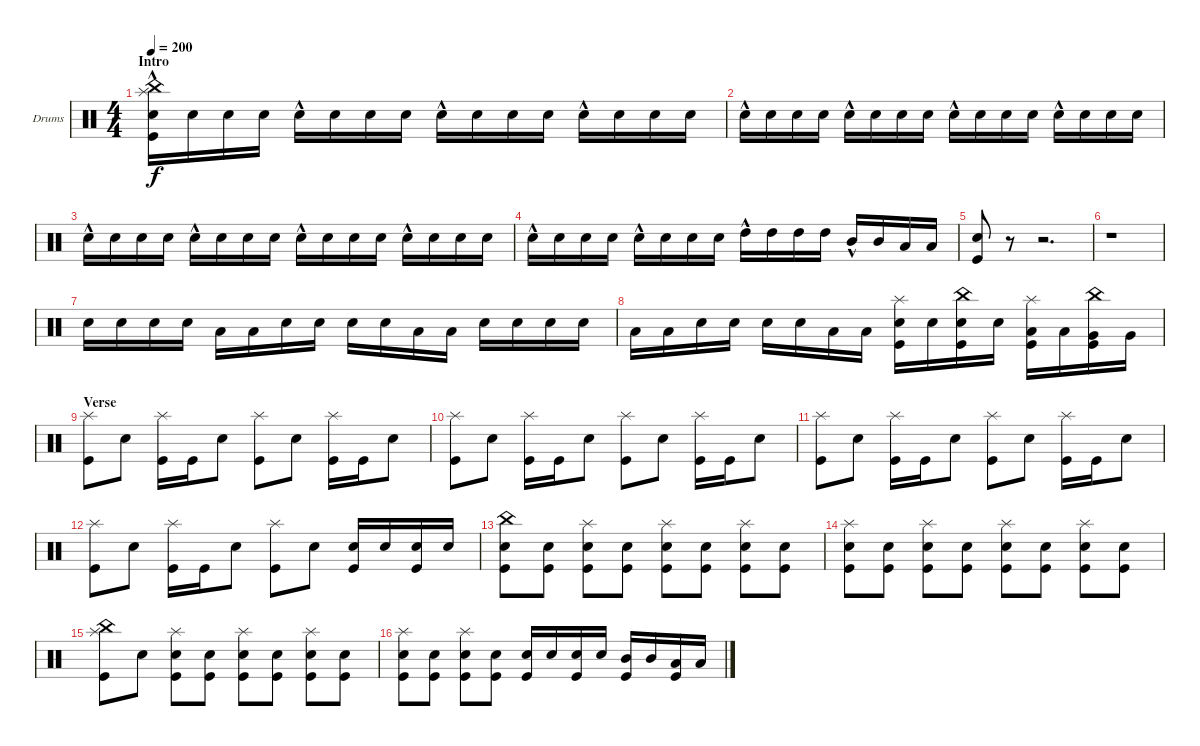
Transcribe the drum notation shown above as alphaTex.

\defaultSystemsLayout 4
\bracketExtendMode groupsimilarinstruments
\firstSystemTrackNameOrientation horizontal
\otherSystemsTrackNameOrientation horizontal
\track ("Drumkit" "Drums") {instrument percussion}
\staff {score}
\articulation defaults
\ts (4 4)
\section ("" "Intro")
\tempo 200
\clef neutral
\ks c
("Splash (hit)" "China (hit)" "Snare (hit) 2"{hac} "Kick (hit)").16{dy f} "Snare (hit) 2".16 "Snare (hit) 2".16 "Snare (hit) 2".16 "Snare (hit) 2"{hac}.16 "Snare (hit) 2".16 "Snare (hit) 2".16 "Snare (hit) 2".16 "Snare (hit) 2"{hac}.16 "Snare (hit) 2".16 "Snare (hit) 2".16 "Snare (hit) 2".16 "Snare (hit) 2"{hac}.16 "Snare (hit) 2".16 "Snare (hit) 2".16 "Snare (hit) 2".16 |
"Snare (hit) 2"{hac}.16 "Snare (hit) 2".16 "Snare (hit) 2".16 "Snare (hit) 2".16 "Snare (hit) 2"{hac}.16 "Snare (hit) 2".16 "Snare (hit) 2".16 "Snare (hit) 2".16 "Snare (hit) 2"{hac}.16 "Snare (hit) 2".16 "Snare (hit) 2".16 "Snare (hit) 2".16 "Snare (hit) 2"{hac}.16 "Snare (hit) 2".16 "Snare (hit) 2".16 "Snare (hit) 2".16 |
"Snare (hit) 2"{hac}.16 "Snare (hit) 2".16 "Snare (hit) 2".16 "Snare (hit) 2".16 "Snare (hit) 2"{hac}.16 "Snare (hit) 2".16 "Snare (hit) 2".16 "Snare (hit) 2".16 "Snare (hit) 2"{hac}.16 "Snare (hit) 2".16 "Snare (hit) 2".16 "Snare (hit) 2".16 "Snare (hit) 2"{hac}.16 "Snare (hit) 2".16 "Snare (hit) 2".16 "Snare (hit) 2".16 |
"Snare (hit) 2"{hac}.16 "Snare (hit) 2".16 "Snare (hit) 2".16 "Snare (hit) 2".16 "Snare (hit) 2"{hac}.16 "Snare (hit) 2".16 "Snare (hit) 2".16 "Snare (hit) 2".16 "High Tom (hit)"{hac}.16 "High Tom (hit)".16 "High Tom (hit)".16 "High Tom (hit)".16 "Mid Tom (hit)"{hac}.16 "Mid Tom (hit)".16 "Low Tom (hit)".16 "Low Tom (hit)".16 |
("Kick (hit)" "Snare (hit) 2").8 r.8 r.2{d} |
r.1 |
"Snare (hit) 2".16 "Snare (hit) 2".16 "Snare (hit) 2".16 "Snare (hit) 2".16 "Low Tom (hit)".16 "Low Tom (hit)".16 "Snare (hit) 2".16 "Snare (hit) 2".16 "Snare (hit) 2".16 "Snare (hit) 2".16 "Low Tom (hit)".16 "Low Tom (hit)".16 "Snare (hit) 2".16 "Snare (hit) 2".16 "Snare (hit) 2".16 "Snare (hit) 2".16 |
"Low Tom (hit)".16 "Low Tom (hit)".16 "Snare (hit) 2".16 "Snare (hit) 2".16 "Snare (hit) 2".16 "Snare (hit) 2".16 "Low Tom (hit)".16 "Low Tom (hit)".16 ("Snare (hit) 2" "Splash (hit)" "Kick (hit)").16 "Snare (hit) 2".16 ("Snare (hit) 2" "China (hit)" "Kick (hit)").16 "Snare (hit) 2".16 ("Low Tom (hit)" "Splash (hit)" "Kick (hit)").16 "Low Tom (hit)".16 ("Very Low Tom (hit)" "China (hit)" "Kick (hit)").16 "Very Low Tom (hit)".16 |
\section ("" "Verse")
("Splash (hit)" "Kick (hit)").8 "Snare (hit) 2".8 ("Splash (hit)" "Kick (hit)").16 "Kick (hit)".16 "Snare (hit) 2".8 ("Splash (hit)" "Kick (hit)").8 "Snare (hit) 2".8 ("Splash (hit)" "Kick (hit)").16 "Kick (hit)".16 "Snare (hit) 2".8 |
("Splash (hit)" "Kick (hit)").8 "Snare (hit) 2".8 ("Splash (hit)" "Kick (hit)").16 "Kick (hit)".16 "Snare (hit) 2".8 ("Splash (hit)" "Kick (hit)").8 "Snare (hit) 2".8 ("Splash (hit)" "Kick (hit)").16 "Kick (hit)".16 "Snare (hit) 2".8 |
("Splash (hit)" "Kick (hit)").8 "Snare (hit) 2".8 ("Splash (hit)" "Kick (hit)").16 "Kick (hit)".16 "Snare (hit) 2".8 ("Splash (hit)" "Kick (hit)").8 "Snare (hit) 2".8 ("Splash (hit)" "Kick (hit)").16 "Kick (hit)".16 "Snare (hit) 2".8 |
("Splash (hit)" "Kick (hit)").8 "Snare (hit) 2".8 ("Splash (hit)" "Kick (hit)").16 "Kick (hit)".16 "Snare (hit) 2".8 ("Splash (hit)" "Kick (hit)").8 "Snare (hit) 2".8 ("Kick (hit)" "Snare (hit) 2").16 "Snare (hit) 2".16 ("Snare (hit) 2" "Kick (hit)").16 "Snare (hit) 2".16 |
("Kick (hit)" "China (hit)" "Snare (hit) 2").8 ("Snare (hit) 2" "Kick (hit)").8 ("Splash (hit)" "Kick (hit)" "Snare (hit) 2").8 ("Snare (hit) 2" "Kick (hit)").8 ("Splash (hit)" "Kick (hit)" "Snare (hit) 2").8 ("Snare (hit) 2" "Kick (hit)").8 ("Splash (hit)" "Kick (hit)" "Snare (hit) 2").8 ("Snare (hit) 2" "Kick (hit)").8 |
("Splash (hit)" "Kick (hit)" "Snare (hit) 2").8 ("Snare (hit) 2" "Kick (hit)").8 ("Splash (hit)" "Kick (hit)" "Snare (hit) 2").8 ("Snare (hit) 2" "Kick (hit)").8 ("Splash (hit)" "Kick (hit)" "Snare (hit) 2").8 ("Snare (hit) 2" "Kick (hit)").8 ("Splash (hit)" "Kick (hit)" "Snare (hit) 2").8 ("Snare (hit) 2" "Kick (hit)").8 |
("Splash (hit)" "Kick (hit)" "China (hit)").8 "Snare (hit) 2".8 ("Splash (hit)" "Kick (hit)" "Snare (hit) 2").8 ("Snare (hit) 2" "Kick (hit)").8 ("Splash (hit)" "Kick (hit)" "Snare (hit) 2").8 ("Snare (hit) 2" "Kick (hit)").8 ("Splash (hit)" "Kick (hit)" "Snare (hit) 2").8 ("Snare (hit) 2" "Kick (hit)").8 |
("Splash (hit)" "Kick (hit)" "Snare (hit) 2").8 ("Snare (hit) 2" "Kick (hit)").8 ("Splash (hit)" "Kick (hit)" "Snare (hit) 2").8 ("Snare (hit) 2" "Kick (hit)").8 ("Kick (hit)" "Snare (hit) 2").16 "Snare (hit) 2".16 ("Snare (hit) 2" "Kick (hit)").16 "Snare (hit) 2".16 ("Kick (hit)" "Mid Tom (hit)").16 "Mid Tom (hit)".16 ("Kick (hit)" "Low Tom (hit)").16 "Low Tom (hit)".16
